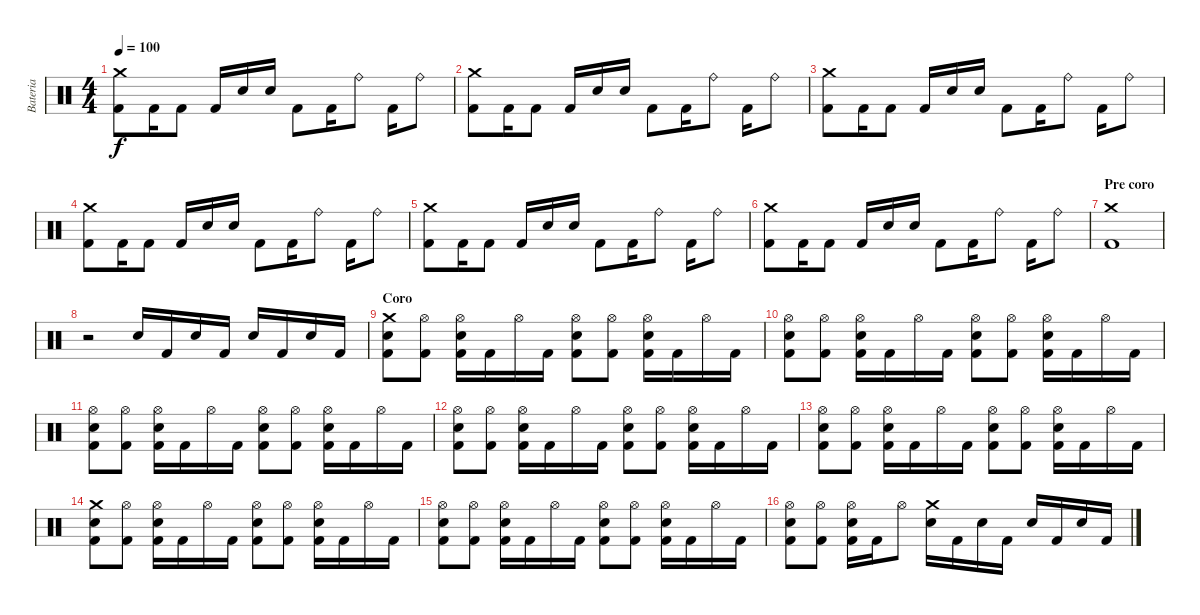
\track ("Bateria" "Bateria") {instrument percussion}
\staff {score}
\articulation defaults
\ts (4 4)
\tempo 100
\clef neutral
\ks c
("Crash medium (hit)" "Kick (hit) 2").8{dy f} "Kick (hit) 2".16 "Kick (hit) 2".8 "Kick (hit) 2".16 "Electric Snare (hit)".16 "Electric Snare (hit)".16 "Kick (hit) 2".8 "Kick (hit) 2".16 "Ride (bell)".8 "Kick (hit) 2".16 "Ride (bell)".8 |
("Crash medium (hit)" "Kick (hit) 2").8 "Kick (hit) 2".16 "Kick (hit) 2".8 "Kick (hit) 2".16 "Electric Snare (hit)".16 "Electric Snare (hit)".16 "Kick (hit) 2".8 "Kick (hit) 2".16 "Ride (bell)".8 "Kick (hit) 2".16 "Ride (bell)".8 |
("Crash medium (hit)" "Kick (hit) 2").8 "Kick (hit) 2".16 "Kick (hit) 2".8 "Kick (hit) 2".16 "Electric Snare (hit)".16 "Electric Snare (hit)".16 "Kick (hit) 2".8 "Kick (hit) 2".16 "Ride (bell)".8 "Kick (hit) 2".16 "Ride (bell)".8 |
("Crash medium (hit)" "Kick (hit) 2").8 "Kick (hit) 2".16 "Kick (hit) 2".8 "Kick (hit) 2".16 "Electric Snare (hit)".16 "Electric Snare (hit)".16 "Kick (hit) 2".8 "Kick (hit) 2".16 "Ride (bell)".8 "Kick (hit) 2".16 "Ride (bell)".8 |
("Crash medium (hit)" "Kick (hit) 2").8 "Kick (hit) 2".16 "Kick (hit) 2".8 "Kick (hit) 2".16 "Electric Snare (hit)".16 "Electric Snare (hit)".16 "Kick (hit) 2".8 "Kick (hit) 2".16 "Ride (bell)".8 "Kick (hit) 2".16 "Ride (bell)".8 |
("Crash medium (hit)" "Kick (hit) 2").8 "Kick (hit) 2".16 "Kick (hit) 2".8 "Kick (hit) 2".16 "Electric Snare (hit)".16 "Electric Snare (hit)".16 "Kick (hit) 2".8 "Kick (hit) 2".16 "Ride (bell)".8 "Kick (hit) 2".16 "Ride (bell)".8 |
\section ("" "Pre coro")
("Crash medium (hit)" "Kick (hit) 2").1 |
r.2 "Electric Snare (hit)".16 "Kick (hit) 2".16 "Electric Snare (hit)".16 "Kick (hit) 2".16 "Electric Snare (hit)".16 "Kick (hit) 2".16 "Electric Snare (hit)".16 "Kick (hit) 2".16 |
\section ("" "Coro")
("Crash medium (hit)" "Electric Snare (hit)" "Kick (hit) 2").8 ("Hi-Hat (open)" "Kick (hit) 2").8 ("Hi-Hat (open)" "Electric Snare (hit)" "Kick (hit) 2").16 "Kick (hit) 2".16 "Hi-Hat (open)".16 "Kick (hit) 2".16 ("Hi-Hat (open)" "Electric Snare (hit)" "Kick (hit) 2").8 ("Hi-Hat (open)" "Kick (hit) 2").8 ("Hi-Hat (open)" "Electric Snare (hit)" "Kick (hit) 2").16 "Kick (hit) 2".16 "Hi-Hat (open)".16 "Kick (hit) 2".16 |
("Hi-Hat (open)" "Electric Snare (hit)" "Kick (hit) 2").8 ("Hi-Hat (open)" "Kick (hit) 2").8 ("Hi-Hat (open)" "Electric Snare (hit)" "Kick (hit) 2").16 "Kick (hit) 2".16 "Hi-Hat (open)".16 "Kick (hit) 2".16 ("Hi-Hat (open)" "Electric Snare (hit)" "Kick (hit) 2").8 ("Hi-Hat (open)" "Kick (hit) 2").8 ("Hi-Hat (open)" "Electric Snare (hit)" "Kick (hit) 2").16 "Kick (hit) 2".16 "Hi-Hat (open)".16 "Kick (hit) 2".16 |
("Hi-Hat (open)" "Electric Snare (hit)" "Kick (hit) 2").8 ("Hi-Hat (open)" "Kick (hit) 2").8 ("Hi-Hat (open)" "Electric Snare (hit)" "Kick (hit) 2").16 "Kick (hit) 2".16 "Hi-Hat (open)".16 "Kick (hit) 2".16 ("Hi-Hat (open)" "Electric Snare (hit)" "Kick (hit) 2").8 ("Hi-Hat (open)" "Kick (hit) 2").8 ("Hi-Hat (open)" "Electric Snare (hit)" "Kick (hit) 2").16 "Kick (hit) 2".16 "Hi-Hat (open)".16 "Kick (hit) 2".16 |
("Hi-Hat (open)" "Electric Snare (hit)" "Kick (hit) 2").8 ("Hi-Hat (open)" "Kick (hit) 2").8 ("Hi-Hat (open)" "Electric Snare (hit)" "Kick (hit) 2").16 "Kick (hit) 2".16 "Hi-Hat (open)".16 "Kick (hit) 2".16 ("Hi-Hat (open)" "Electric Snare (hit)" "Kick (hit) 2").8 ("Hi-Hat (open)" "Kick (hit) 2").8 ("Hi-Hat (open)" "Electric Snare (hit)" "Kick (hit) 2").16 "Kick (hit) 2".16 "Hi-Hat (open)".16 "Kick (hit) 2".16 |
("Hi-Hat (open)" "Electric Snare (hit)" "Kick (hit) 2").8 ("Hi-Hat (open)" "Kick (hit) 2").8 ("Hi-Hat (open)" "Electric Snare (hit)" "Kick (hit) 2").16 "Kick (hit) 2".16 "Hi-Hat (open)".16 "Kick (hit) 2".16 ("Hi-Hat (open)" "Electric Snare (hit)" "Kick (hit) 2").8 ("Hi-Hat (open)" "Kick (hit) 2").8 ("Hi-Hat (open)" "Electric Snare (hit)" "Kick (hit) 2").16 "Kick (hit) 2".16 "Hi-Hat (open)".16 "Kick (hit) 2".16 |
("Crash medium (hit)" "Electric Snare (hit)" "Kick (hit) 2").8 ("Hi-Hat (open)" "Kick (hit) 2").8 ("Hi-Hat (open)" "Electric Snare (hit)" "Kick (hit) 2").16 "Kick (hit) 2".16 "Hi-Hat (open)".16 "Kick (hit) 2".16 ("Hi-Hat (open)" "Electric Snare (hit)" "Kick (hit) 2").8 ("Hi-Hat (open)" "Kick (hit) 2").8 ("Hi-Hat (open)" "Electric Snare (hit)" "Kick (hit) 2").16 "Kick (hit) 2".16 "Hi-Hat (open)".16 "Kick (hit) 2".16 |
("Hi-Hat (open)" "Electric Snare (hit)" "Kick (hit) 2").8 ("Hi-Hat (open)" "Kick (hit) 2").8 ("Hi-Hat (open)" "Electric Snare (hit)" "Kick (hit) 2").16 "Kick (hit) 2".16 "Hi-Hat (open)".16 "Kick (hit) 2".16 ("Hi-Hat (open)" "Electric Snare (hit)" "Kick (hit) 2").8 ("Hi-Hat (open)" "Kick (hit) 2").8 ("Hi-Hat (open)" "Electric Snare (hit)" "Kick (hit) 2").16 "Kick (hit) 2".16 "Hi-Hat (open)".16 "Kick (hit) 2".16 |
("Hi-Hat (open)" "Electric Snare (hit)" "Kick (hit) 2").8 ("Hi-Hat (open)" "Kick (hit) 2").8 ("Hi-Hat (open)" "Electric Snare (hit)" "Kick (hit) 2").16 "Kick (hit) 2".16 "Hi-Hat (open)".8 ("Crash medium (hit)" "Electric Snare (hit)").16 "Kick (hit) 2".16 "Electric Snare (hit)".16 "Kick (hit) 2".16 "Electric Snare (hit)".16 "Kick (hit) 2".16 "Electric Snare (hit)".16 "Kick (hit) 2".16
